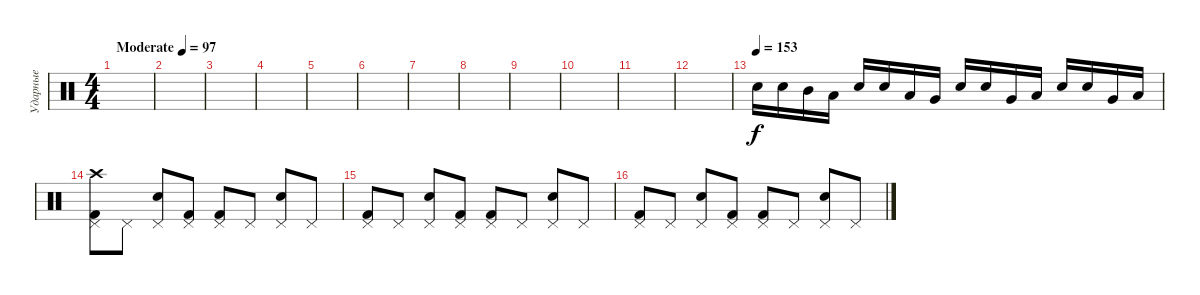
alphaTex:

\track ("Ударные" "Ударные") {instrument percussion}
\staff {score}
\articulation defaults
\ts (4 4)
\tempo (97 "Moderate")
\tempo 100
\tempo (97 "Moderate")
\clef neutral
\ks c
|
|
|
|
|
|
|
|
|
|
|
|
\tempo (153)
"Electric Snare (hit)".16 "Electric Snare (hit)".16 "Mid Tom (hit)".16 "Low Tom (hit)".16 "Electric Snare (hit)".16 "Electric Snare (hit)".16 "Low Tom (hit)".16 "Very Low Tom (hit)".16 "Electric Snare (hit)".16 "Electric Snare (hit)".16 "Very Low Tom (hit)".16 "Low Floor Tom (hit)".16 "Electric Snare (hit)".16 "Electric Snare (hit)".16 "Very Low Tom (hit)".16 "Low Floor Tom (hit)".16 |
("Crash high (hit)" "Pedal Hi-Hat (hit)" "Kick (hit) 2").8 "Pedal Hi-Hat (hit)".8 ("Electric Snare (hit)" "Pedal Hi-Hat (hit)").8 ("Pedal Hi-Hat (hit)" "Kick (hit) 2").8 ("Pedal Hi-Hat (hit)" "Kick (hit) 2").8 "Pedal Hi-Hat (hit)".8 ("Electric Snare (hit)" "Pedal Hi-Hat (hit)").8 "Pedal Hi-Hat (hit)".8 |
("Pedal Hi-Hat (hit)" "Kick (hit) 2").8 "Pedal Hi-Hat (hit)".8 ("Electric Snare (hit)" "Pedal Hi-Hat (hit)").8 ("Pedal Hi-Hat (hit)" "Kick (hit) 2").8 ("Pedal Hi-Hat (hit)" "Kick (hit) 2").8 "Pedal Hi-Hat (hit)".8 ("Electric Snare (hit)" "Pedal Hi-Hat (hit)").8 "Pedal Hi-Hat (hit)".8 |
("Pedal Hi-Hat (hit)" "Kick (hit) 2").8 "Pedal Hi-Hat (hit)".8 ("Electric Snare (hit)" "Pedal Hi-Hat (hit)").8 ("Pedal Hi-Hat (hit)" "Kick (hit) 2").8 ("Pedal Hi-Hat (hit)" "Kick (hit) 2").8 "Pedal Hi-Hat (hit)".8 ("Electric Snare (hit)" "Pedal Hi-Hat (hit)").8 "Pedal Hi-Hat (hit)".8
